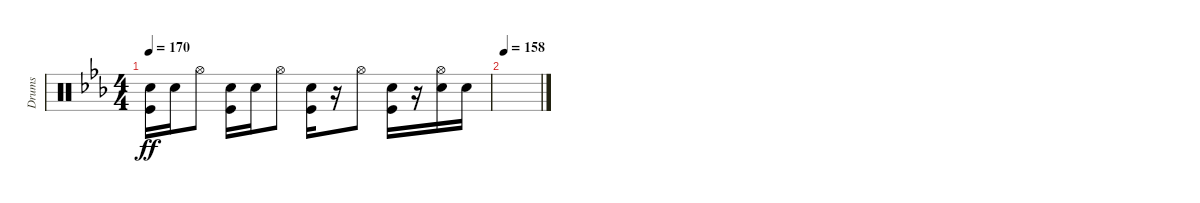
\track ("Drums" "Drums") {instrument percussion}
\staff {score}
\articulation defaults
\ts (4 4)
\tempo 170
\clef neutral
\ks cminor
("Snare (hit) 2" "Kick (hit)").16{dy ff} "Snare (hit) 2".16 "Hi-Hat (open)".8 ("Snare (hit) 2" "Kick (hit)").16 "Snare (hit) 2".16 "Hi-Hat (open)".8 ("Snare (hit) 2" "Kick (hit)").16 r.16 "Hi-Hat (open)".8 ("Snare (hit) 2" "Kick (hit)").16 r.16 ("Hi-Hat (open)" "Snare (hit) 2").16 "Snare (hit) 2".16 |
\tempo 158
